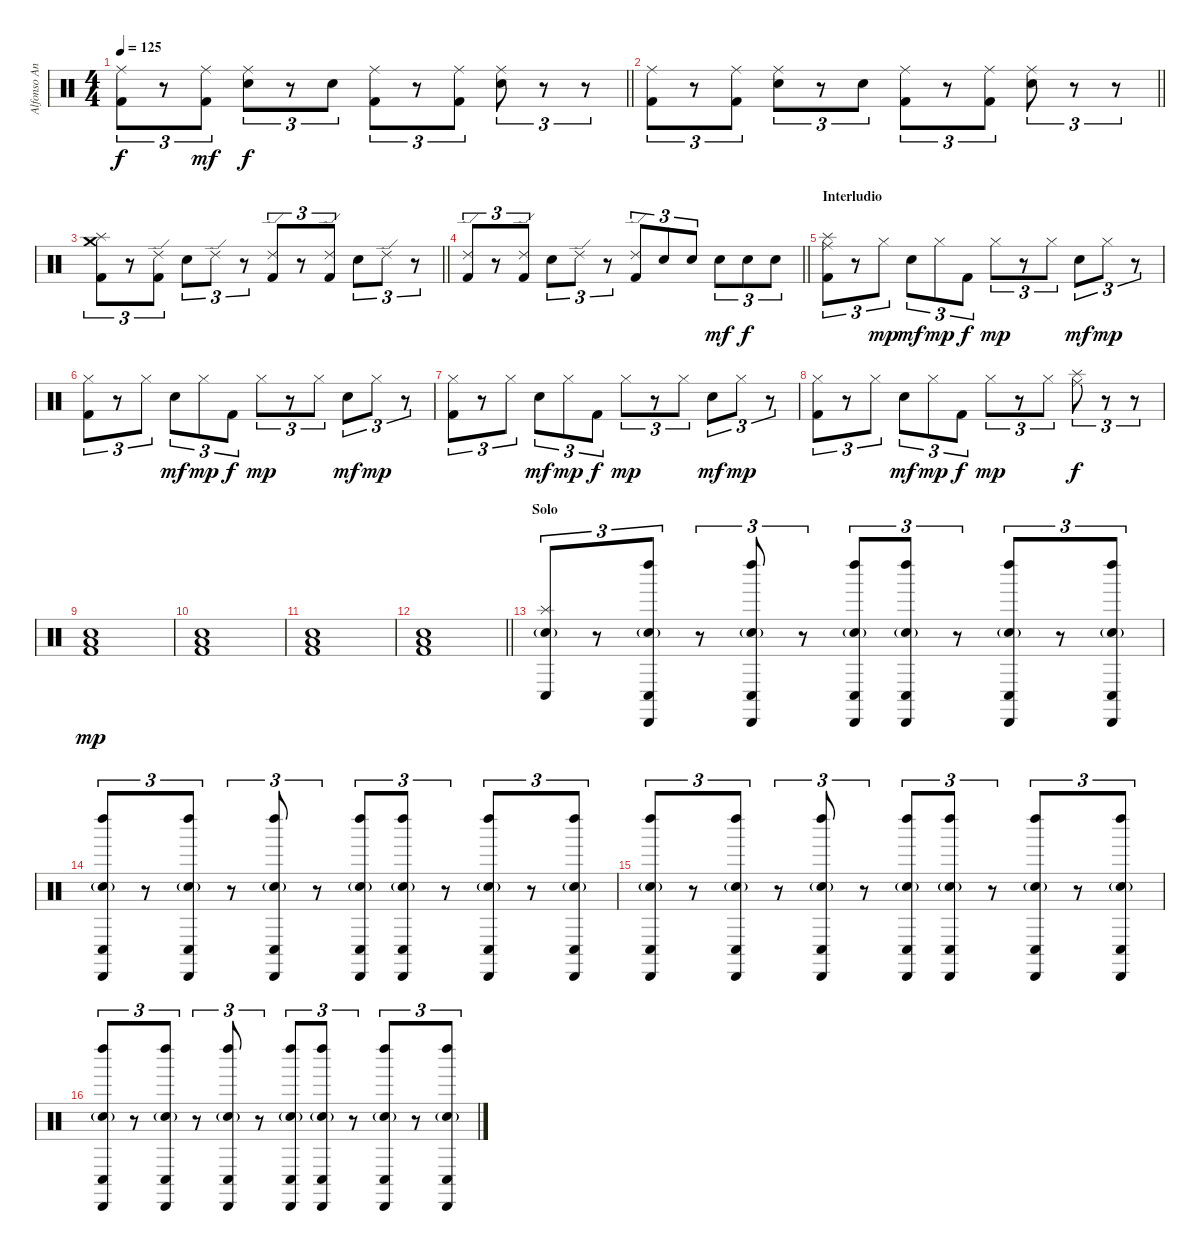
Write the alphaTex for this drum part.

\track ("Alfonso Andre" "Alfonso An") {instrument percussion}
\staff {score}
\articulation defaults
\ts (4 4)
\tempo 125
\clef neutral
\barLineRight lightlight
\ks c
("Ride (middle)" "Kick (hit) 2").8{tu (3 2) dy f} r.8{tu (3 2)} ("Ride (middle)" "Kick (hit) 2").8{tu (3 2) dy mf} ("Ride (middle)" "Electric Snare (hit)").8{tu (3 2) dy f} r.8{tu (3 2)} "Electric Snare (hit)".8{tu (3 2)} ("Ride (middle)" "Kick (hit) 2").8{tu (3 2)} r.8{tu (3 2)} ("Ride (middle)" "Kick (hit) 2").8{tu (3 2)} ("Ride (middle)" "Electric Snare (hit)").8{tu (3 2)} r.8{tu (3 2)} r.8{tu (3 2)} |
\barLineRight lightlight
("Ride (middle)" "Kick (hit) 2").8{tu (3 2)} r.8{tu (3 2)} ("Ride (middle)" "Kick (hit) 2").8{tu (3 2)} ("Ride (middle)" "Electric Snare (hit)").8{tu (3 2)} r.8{tu (3 2)} "Electric Snare (hit)".8{tu (3 2)} ("Ride (middle)" "Kick (hit) 2").8{tu (3 2)} r.8{tu (3 2)} ("Ride (middle)" "Kick (hit) 2").8{tu (3 2)} ("Ride (middle)" "Electric Snare (hit)").8{tu (3 2)} r.8{tu (3 2)} r.8{tu (3 2)} |
\barLineRight lightlight
("Crash medium (hit)" "Splash (hit)" "Kick (hit) 2").8{tu (3 2)} r.8{tu (3 2)} ("Ride (edge) 2" "Kick (hit) 2").8{tu (3 2)} "Electric Snare (hit)".8{tu (3 2)} "Ride (edge) 2".8{tu (3 2)} r.8{tu (3 2)} ("Ride (edge) 2" "Kick (hit) 2").8{tu (3 2)} r.8{tu (3 2)} ("Ride (edge) 2" "Kick (hit) 2").8{tu (3 2)} "Electric Snare (hit)".8{tu (3 2)} "Ride (edge) 2".8{tu (3 2)} r.8{tu (3 2)} |
\barLineRight lightlight
("Ride (edge) 2" "Kick (hit) 2").8{tu (3 2)} r.8{tu (3 2)} ("Ride (edge) 2" "Kick (hit) 2").8{tu (3 2)} "Electric Snare (hit)".8{tu (3 2)} "Ride (edge) 2".8{tu (3 2)} r.8{tu (3 2)} ("Ride (edge) 2" "Kick (hit) 2").8{tu (3 2)} "Electric Snare (hit)".8{tu (3 2)} "Electric Snare (hit)".8{tu (3 2)} "Electric Snare (hit)".8{tu (3 2) dy mf} "Electric Snare (hit)".8{tu (3 2) dy f} "Electric Snare (hit)".8{tu (3 2)} |
\section ("" "Interludio")
("Splash (hit)" "Ride (middle)" "Kick (hit) 2").8{tu (3 2)} r.8{tu (3 2)} "Hi-Hat (closed)".8{tu (3 2) dy mp} "Electric Snare (hit)".8{tu (3 2) dy mf} "Hi-Hat (closed)".8{tu (3 2) dy mp} "Kick (hit) 2".8{tu (3 2) dy f} "Hi-Hat (closed)".8{tu (3 2) dy mp} r.8{tu (3 2)} "Hi-Hat (closed)".8{tu (3 2)} "Electric Snare (hit)".8{tu (3 2) dy mf} "Hi-Hat (closed)".8{tu (3 2) dy mp} r.8{tu (3 2)} |
("Hi-Hat (closed)" "Kick (hit) 2").8{tu (3 2)} r.8{tu (3 2)} "Hi-Hat (closed)".8{tu (3 2)} "Electric Snare (hit)".8{tu (3 2) dy mf} "Hi-Hat (closed)".8{tu (3 2) dy mp} "Kick (hit) 2".8{tu (3 2) dy f} "Hi-Hat (closed)".8{tu (3 2) dy mp} r.8{tu (3 2)} "Hi-Hat (closed)".8{tu (3 2)} "Electric Snare (hit)".8{tu (3 2) dy mf} "Hi-Hat (closed)".8{tu (3 2) dy mp} r.8{tu (3 2)} |
("Hi-Hat (closed)" "Kick (hit) 2").8{tu (3 2)} r.8{tu (3 2)} "Hi-Hat (closed)".8{tu (3 2)} "Electric Snare (hit)".8{tu (3 2) dy mf} "Hi-Hat (closed)".8{tu (3 2) dy mp} "Kick (hit) 2".8{tu (3 2) dy f} "Hi-Hat (closed)".8{tu (3 2) dy mp} r.8{tu (3 2)} "Hi-Hat (closed)".8{tu (3 2)} "Electric Snare (hit)".8{tu (3 2) dy mf} "Hi-Hat (closed)".8{tu (3 2) dy mp} r.8{tu (3 2)} |
("Hi-Hat (closed)" "Kick (hit) 2").8{tu (3 2)} r.8{tu (3 2)} "Hi-Hat (closed)".8{tu (3 2)} "Electric Snare (hit)".8{tu (3 2) dy mf} "Hi-Hat (closed)".8{tu (3 2) dy mp} "Kick (hit) 2".8{tu (3 2) dy f} "Hi-Hat (closed)".8{tu (3 2) dy mp} r.8{tu (3 2)} "Hi-Hat (closed)".8{tu (3 2)} ("Splash (hit)" "Ride (middle)").8{tu (3 2) dy f} r.8{tu (3 2)} r.8{tu (3 2)} |
("Low Tom (hit)" "Electric Snare (hit)" "Kick (hit) 2").1{dy mp} |
("Low Tom (hit)" "Electric Snare (hit)" "Kick (hit) 2").1 |
("Low Tom (hit)" "Electric Snare (hit)" "Kick (hit) 2").1 |
\barLineRight lightlight
("Low Tom (hit)" "Electric Snare (hit)" "Kick (hit) 2").1 |
\section ("" "Solo")
("Splash (hit)" "Conga low (hit)" "Electric Snare (hit)"{g}).8{tu (3 2)} r.8{tu (3 2)} ("Left Maraca (hit)" "Cabasa (hit)" "Conga low (hit)" "Electric Snare (hit)"{g}).8{tu (3 2)} r.8{tu (3 2)} ("Left Maraca (hit)" "Cabasa (hit)" "Conga low (hit)" "Electric Snare (hit)"{g}).8{tu (3 2)} r.8{tu (3 2)} ("Left Maraca (hit)" "Cabasa (hit)" "Conga low (hit)" "Electric Snare (hit)"{g}).8{tu (3 2)} ("Left Maraca (hit)" "Cabasa (hit)" "Conga low (hit)" "Electric Snare (hit)"{g}).8{tu (3 2)} r.8{tu (3 2)} ("Left Maraca (hit)" "Cabasa (hit)" "Conga low (hit)" "Electric Snare (hit)"{g}).8{tu (3 2)} r.8{tu (3 2)} ("Left Maraca (hit)" "Cabasa (hit)" "Conga low (hit)" "Electric Snare (hit)"{g}).8{tu (3 2)} |
("Left Maraca (hit)" "Cabasa (hit)" "Conga low (hit)" "Electric Snare (hit)"{g}).8{tu (3 2)} r.8{tu (3 2)} ("Left Maraca (hit)" "Cabasa (hit)" "Conga low (hit)" "Electric Snare (hit)"{g}).8{tu (3 2)} r.8{tu (3 2)} ("Left Maraca (hit)" "Cabasa (hit)" "Conga low (hit)" "Electric Snare (hit)"{g}).8{tu (3 2)} r.8{tu (3 2)} ("Left Maraca (hit)" "Cabasa (hit)" "Conga low (hit)" "Electric Snare (hit)"{g}).8{tu (3 2)} ("Left Maraca (hit)" "Cabasa (hit)" "Conga low (hit)" "Electric Snare (hit)"{g}).8{tu (3 2)} r.8{tu (3 2)} ("Left Maraca (hit)" "Cabasa (hit)" "Conga low (hit)" "Electric Snare (hit)"{g}).8{tu (3 2)} r.8{tu (3 2)} ("Left Maraca (hit)" "Cabasa (hit)" "Conga low (hit)" "Electric Snare (hit)"{g}).8{tu (3 2)} |
("Left Maraca (hit)" "Cabasa (hit)" "Conga low (hit)" "Electric Snare (hit)"{g}).8{tu (3 2)} r.8{tu (3 2)} ("Left Maraca (hit)" "Cabasa (hit)" "Conga low (hit)" "Electric Snare (hit)"{g}).8{tu (3 2)} r.8{tu (3 2)} ("Left Maraca (hit)" "Cabasa (hit)" "Conga low (hit)" "Electric Snare (hit)"{g}).8{tu (3 2)} r.8{tu (3 2)} ("Left Maraca (hit)" "Cabasa (hit)" "Conga low (hit)" "Electric Snare (hit)"{g}).8{tu (3 2)} ("Left Maraca (hit)" "Cabasa (hit)" "Conga low (hit)" "Electric Snare (hit)"{g}).8{tu (3 2)} r.8{tu (3 2)} ("Left Maraca (hit)" "Cabasa (hit)" "Conga low (hit)" "Electric Snare (hit)"{g}).8{tu (3 2)} r.8{tu (3 2)} ("Left Maraca (hit)" "Cabasa (hit)" "Conga low (hit)" "Electric Snare (hit)"{g}).8{tu (3 2)} |
("Left Maraca (hit)" "Cabasa (hit)" "Conga low (hit)" "Electric Snare (hit)"{g}).8{tu (3 2)} r.8{tu (3 2)} ("Left Maraca (hit)" "Cabasa (hit)" "Conga low (hit)" "Electric Snare (hit)"{g}).8{tu (3 2)} r.8{tu (3 2)} ("Left Maraca (hit)" "Cabasa (hit)" "Conga low (hit)" "Electric Snare (hit)"{g}).8{tu (3 2)} r.8{tu (3 2)} ("Left Maraca (hit)" "Cabasa (hit)" "Conga low (hit)" "Electric Snare (hit)"{g}).8{tu (3 2)} ("Left Maraca (hit)" "Cabasa (hit)" "Conga low (hit)" "Electric Snare (hit)"{g}).8{tu (3 2)} r.8{tu (3 2)} ("Left Maraca (hit)" "Cabasa (hit)" "Conga low (hit)" "Electric Snare (hit)"{g}).8{tu (3 2)} r.8{tu (3 2)} ("Left Maraca (hit)" "Cabasa (hit)" "Conga low (hit)" "Electric Snare (hit)"{g}).8{tu (3 2)}
